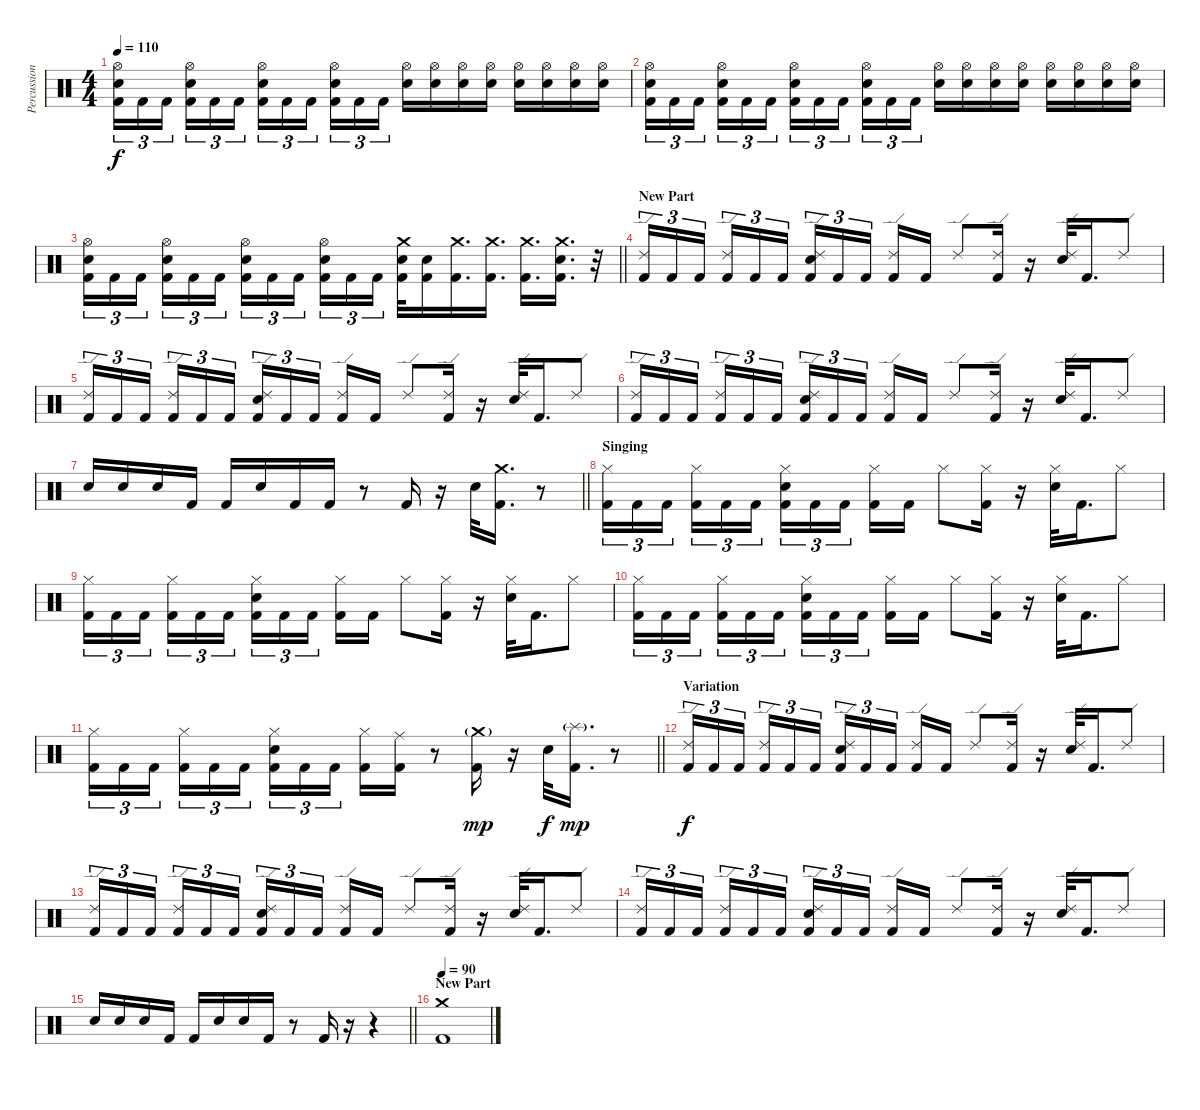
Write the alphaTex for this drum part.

\track ("Percussion" "Percussion") {instrument percussion}
\staff {score}
\articulation defaults
\ts (4 4)
\tempo 110
\clef neutral
\ks c
("Hi-Hat (open)" "Electric Snare (hit)" "Kick (hit) 2").16{tu (3 2) dy f} "Kick (hit) 2".16{tu (3 2)} "Kick (hit) 2".16{tu (3 2) beam splitsecondary} ("Hi-Hat (open)" "Electric Snare (hit)" "Kick (hit) 2").16{tu (3 2)} "Kick (hit) 2".16{tu (3 2)} "Kick (hit) 2".16{tu (3 2)} ("Hi-Hat (open)" "Electric Snare (hit)" "Kick (hit) 2").16{tu (3 2)} "Kick (hit) 2".16{tu (3 2)} "Kick (hit) 2".16{tu (3 2) beam splitsecondary} ("Hi-Hat (open)" "Electric Snare (hit)" "Kick (hit) 2").16{tu (3 2)} "Kick (hit) 2".16{tu (3 2)} "Kick (hit) 2".16{tu (3 2)} ("Hi-Hat (open)" "Electric Snare (hit)").16 ("Hi-Hat (open)" "Electric Snare (hit)").16 ("Hi-Hat (open)" "Electric Snare (hit)").16 ("Hi-Hat (open)" "Electric Snare (hit)").16 ("Hi-Hat (open)" "Electric Snare (hit)").16 ("Hi-Hat (open)" "Electric Snare (hit)").16 ("Hi-Hat (open)" "Electric Snare (hit)").16 ("Hi-Hat (open)" "Electric Snare (hit)").16 |
("Hi-Hat (open)" "Electric Snare (hit)" "Kick (hit) 2").16{tu (3 2)} "Kick (hit) 2".16{tu (3 2)} "Kick (hit) 2".16{tu (3 2) beam splitsecondary} ("Hi-Hat (open)" "Electric Snare (hit)" "Kick (hit) 2").16{tu (3 2)} "Kick (hit) 2".16{tu (3 2)} "Kick (hit) 2".16{tu (3 2)} ("Hi-Hat (open)" "Electric Snare (hit)" "Kick (hit) 2").16{tu (3 2)} "Kick (hit) 2".16{tu (3 2)} "Kick (hit) 2".16{tu (3 2) beam splitsecondary} ("Hi-Hat (open)" "Electric Snare (hit)" "Kick (hit) 2").16{tu (3 2)} "Kick (hit) 2".16{tu (3 2)} "Kick (hit) 2".16{tu (3 2)} ("Hi-Hat (open)" "Electric Snare (hit)").16 ("Hi-Hat (open)" "Electric Snare (hit)").16 ("Hi-Hat (open)" "Electric Snare (hit)").16 ("Hi-Hat (open)" "Electric Snare (hit)").16 ("Hi-Hat (open)" "Electric Snare (hit)").16 ("Hi-Hat (open)" "Electric Snare (hit)").16 ("Hi-Hat (open)" "Electric Snare (hit)").16 ("Hi-Hat (open)" "Electric Snare (hit)").16 |
\barLineRight lightlight
("Hi-Hat (open)" "Electric Snare (hit)" "Kick (hit) 2").16{tu (3 2)} "Kick (hit) 2".16{tu (3 2)} "Kick (hit) 2".16{tu (3 2) beam splitsecondary} ("Hi-Hat (open)" "Electric Snare (hit)" "Kick (hit) 2").16{tu (3 2)} "Kick (hit) 2".16{tu (3 2)} "Kick (hit) 2".16{tu (3 2)} ("Hi-Hat (open)" "Electric Snare (hit)" "Kick (hit) 2").16{tu (3 2)} "Kick (hit) 2".16{tu (3 2)} "Kick (hit) 2".16{tu (3 2) beam splitsecondary} ("Hi-Hat (open)" "Electric Snare (hit)" "Kick (hit) 2").16{tu (3 2)} "Kick (hit) 2".16{tu (3 2)} "Kick (hit) 2".16{tu (3 2)} ("Crash medium (hit)" "Electric Snare (hit)" "Kick (hit) 2").32 ("Electric Snare (hit)" "Kick (hit) 2").16 ("Crash medium (hit)" "Kick (hit) 2").16{d} ("Crash medium (hit)" "Kick (hit) 2").16{d} ("Crash medium (hit)" "Kick (hit) 2").16{d} ("Crash medium (hit)" "Electric Snare (hit)" "Kick (hit) 2").16{d} r.32 |
\section ("" "New Part")
("Ride (edge) 2" "Kick (hit) 2").16{tu (3 2)} "Kick (hit) 2".16{tu (3 2)} "Kick (hit) 2".16{tu (3 2) beam splitsecondary} ("Ride (edge) 2" "Kick (hit) 2").16{tu (3 2)} "Kick (hit) 2".16{tu (3 2)} "Kick (hit) 2".16{tu (3 2)} ("Ride (edge) 2" "Electric Snare (hit)" "Kick (hit) 2").16{tu (3 2)} "Kick (hit) 2".16{tu (3 2)} "Kick (hit) 2".16{tu (3 2) beam splitsecondary} ("Ride (edge) 2" "Kick (hit) 2").16 "Kick (hit) 2".16 "Ride (edge) 2".8 ("Ride (edge) 2" "Kick (hit) 2").16 r.16 ("Ride (edge) 2" "Electric Snare (hit)").32 "Kick (hit) 2".16{d} "Ride (edge) 2".8 |
("Ride (edge) 2" "Kick (hit) 2").16{tu (3 2)} "Kick (hit) 2".16{tu (3 2)} "Kick (hit) 2".16{tu (3 2) beam splitsecondary} ("Ride (edge) 2" "Kick (hit) 2").16{tu (3 2)} "Kick (hit) 2".16{tu (3 2)} "Kick (hit) 2".16{tu (3 2)} ("Ride (edge) 2" "Electric Snare (hit)" "Kick (hit) 2").16{tu (3 2)} "Kick (hit) 2".16{tu (3 2)} "Kick (hit) 2".16{tu (3 2) beam splitsecondary} ("Ride (edge) 2" "Kick (hit) 2").16 "Kick (hit) 2".16 "Ride (edge) 2".8 ("Ride (edge) 2" "Kick (hit) 2").16 r.16 ("Ride (edge) 2" "Electric Snare (hit)").32 "Kick (hit) 2".16{d} "Ride (edge) 2".8 |
("Ride (edge) 2" "Kick (hit) 2").16{tu (3 2)} "Kick (hit) 2".16{tu (3 2)} "Kick (hit) 2".16{tu (3 2) beam splitsecondary} ("Ride (edge) 2" "Kick (hit) 2").16{tu (3 2)} "Kick (hit) 2".16{tu (3 2)} "Kick (hit) 2".16{tu (3 2)} ("Ride (edge) 2" "Electric Snare (hit)" "Kick (hit) 2").16{tu (3 2)} "Kick (hit) 2".16{tu (3 2)} "Kick (hit) 2".16{tu (3 2) beam splitsecondary} ("Ride (edge) 2" "Kick (hit) 2").16 "Kick (hit) 2".16 "Ride (edge) 2".8 ("Ride (edge) 2" "Kick (hit) 2").16 r.16 ("Ride (edge) 2" "Electric Snare (hit)").32 "Kick (hit) 2".16{d} "Ride (edge) 2".8 |
\barLineRight lightlight "Electric Snare (hit)".16 "Electric Snare (hit)".16 "Electric Snare (hit)".16 "Kick (hit) 2".16 "Kick (hit) 2".16 "Electric Snare (hit)".16 "Kick (hit) 2".16 "Kick (hit) 2".16
r.8 "Kick (hit) 2".16 r.16 "Electric Snare (hit)".32 ("Crash medium (hit)" "Kick (hit) 2").16{d} r.8 |
\section ("" "Singing")
("Hi-Hat (closed)" "Kick (hit) 2").16{tu (3 2)} "Kick (hit) 2".16{tu (3 2)} "Kick (hit) 2".16{tu (3 2) beam splitsecondary} ("Hi-Hat (closed)" "Kick (hit) 2").16{tu (3 2)} "Kick (hit) 2".16{tu (3 2)} "Kick (hit) 2".16{tu (3 2)} ("Hi-Hat (closed)" "Electric Snare (hit)" "Kick (hit) 2").16{tu (3 2)} "Kick (hit) 2".16{tu (3 2)} "Kick (hit) 2".16{tu (3 2) beam splitsecondary} ("Hi-Hat (closed)" "Kick (hit) 2").16 "Kick (hit) 2".16 "Hi-Hat (closed)".8 ("Hi-Hat (closed)" "Kick (hit) 2").16 r.16 ("Hi-Hat (closed)" "Electric Snare (hit)").32 "Kick (hit) 2".16{d} "Hi-Hat (closed)".8 |
("Hi-Hat (closed)" "Kick (hit) 2").16{tu (3 2)} "Kick (hit) 2".16{tu (3 2)} "Kick (hit) 2".16{tu (3 2) beam splitsecondary} ("Hi-Hat (closed)" "Kick (hit) 2").16{tu (3 2)} "Kick (hit) 2".16{tu (3 2)} "Kick (hit) 2".16{tu (3 2)} ("Hi-Hat (closed)" "Electric Snare (hit)" "Kick (hit) 2").16{tu (3 2)} "Kick (hit) 2".16{tu (3 2)} "Kick (hit) 2".16{tu (3 2) beam splitsecondary} ("Hi-Hat (closed)" "Kick (hit) 2").16 "Kick (hit) 2".16 "Hi-Hat (closed)".8 ("Hi-Hat (closed)" "Kick (hit) 2").16 r.16 ("Hi-Hat (closed)" "Electric Snare (hit)").32 "Kick (hit) 2".16{d} "Hi-Hat (closed)".8 |
("Hi-Hat (closed)" "Kick (hit) 2").16{tu (3 2)} "Kick (hit) 2".16{tu (3 2)} "Kick (hit) 2".16{tu (3 2) beam splitsecondary} ("Hi-Hat (closed)" "Kick (hit) 2").16{tu (3 2)} "Kick (hit) 2".16{tu (3 2)} "Kick (hit) 2".16{tu (3 2)} ("Hi-Hat (closed)" "Electric Snare (hit)" "Kick (hit) 2").16{tu (3 2)} "Kick (hit) 2".16{tu (3 2)} "Kick (hit) 2".16{tu (3 2) beam splitsecondary} ("Hi-Hat (closed)" "Kick (hit) 2").16 "Kick (hit) 2".16 "Hi-Hat (closed)".8 ("Hi-Hat (closed)" "Kick (hit) 2").16 r.16 ("Hi-Hat (closed)" "Electric Snare (hit)").32 "Kick (hit) 2".16{d} "Hi-Hat (closed)".8 |
\barLineRight lightlight
("Hi-Hat (closed)" "Kick (hit) 2").16{tu (3 2)} "Kick (hit) 2".16{tu (3 2)} "Kick (hit) 2".16{tu (3 2) beam splitsecondary} ("Hi-Hat (closed)" "Kick (hit) 2").16{tu (3 2)} "Kick (hit) 2".16{tu (3 2)} "Kick (hit) 2".16{tu (3 2)} ("Hi-Hat (closed)" "Electric Snare (hit)" "Kick (hit) 2").16{tu (3 2)} "Kick (hit) 2".16{tu (3 2)} "Kick (hit) 2".16{tu (3 2) beam splitsecondary} ("Hi-Hat (closed)" "Kick (hit) 2").16 ("Ride (middle)" "Kick (hit) 2").16 r.8 ("Crash medium (hit)"{g} "Kick (hit) 2").16{dy mp} r.16 "Electric Snare (hit)".32{dy f} ("Splash (hit)"{g} "Kick (hit) 2").16{d dy mp} r.8 |
\section ("" "Variation")
("Ride (edge) 2" "Kick (hit) 2").16{tu (3 2) dy f} "Kick (hit) 2".16{tu (3 2)} "Kick (hit) 2".16{tu (3 2) beam splitsecondary} ("Ride (edge) 2" "Kick (hit) 2").16{tu (3 2)} "Kick (hit) 2".16{tu (3 2)} "Kick (hit) 2".16{tu (3 2)} ("Ride (edge) 2" "Electric Snare (hit)" "Kick (hit) 2").16{tu (3 2)} "Kick (hit) 2".16{tu (3 2)} "Kick (hit) 2".16{tu (3 2) beam splitsecondary} ("Ride (edge) 2" "Kick (hit) 2").16 "Kick (hit) 2".16 "Ride (edge) 2".8 ("Ride (edge) 2" "Kick (hit) 2").16 r.16 ("Ride (edge) 2" "Electric Snare (hit)").32 "Kick (hit) 2".16{d} "Ride (edge) 2".8 |
("Ride (edge) 2" "Kick (hit) 2").16{tu (3 2)} "Kick (hit) 2".16{tu (3 2)} "Kick (hit) 2".16{tu (3 2) beam splitsecondary} ("Ride (edge) 2" "Kick (hit) 2").16{tu (3 2)} "Kick (hit) 2".16{tu (3 2)} "Kick (hit) 2".16{tu (3 2)} ("Ride (edge) 2" "Electric Snare (hit)" "Kick (hit) 2").16{tu (3 2)} "Kick (hit) 2".16{tu (3 2)} "Kick (hit) 2".16{tu (3 2) beam splitsecondary} ("Ride (edge) 2" "Kick (hit) 2").16 "Kick (hit) 2".16 "Ride (edge) 2".8 ("Ride (edge) 2" "Kick (hit) 2").16 r.16 ("Ride (edge) 2" "Electric Snare (hit)").32 "Kick (hit) 2".16{d} "Ride (edge) 2".8 |
("Ride (edge) 2" "Kick (hit) 2").16{tu (3 2)} "Kick (hit) 2".16{tu (3 2)} "Kick (hit) 2".16{tu (3 2) beam splitsecondary} ("Ride (edge) 2" "Kick (hit) 2").16{tu (3 2)} "Kick (hit) 2".16{tu (3 2)} "Kick (hit) 2".16{tu (3 2)} ("Ride (edge) 2" "Electric Snare (hit)" "Kick (hit) 2").16{tu (3 2)} "Kick (hit) 2".16{tu (3 2)} "Kick (hit) 2".16{tu (3 2) beam splitsecondary} ("Ride (edge) 2" "Kick (hit) 2").16 "Kick (hit) 2".16 "Ride (edge) 2".8 ("Ride (edge) 2" "Kick (hit) 2").16 r.16 ("Ride (edge) 2" "Electric Snare (hit)").32 "Kick (hit) 2".16{d} "Ride (edge) 2".8 |
\barLineRight lightlight "Electric Snare (hit)".16 "Electric Snare (hit)".16 "Electric Snare (hit)".16 "Kick (hit) 2".16 "Kick (hit) 2".16 "Electric Snare (hit)".16 "Electric Snare (hit)".16 "Kick (hit) 2".16
r.8 "Kick (hit) 2".16 r.16 r.4 |
\section ("" "New Part")
\tempo 90
("Crash medium (hit)" "Kick (hit) 2").1
